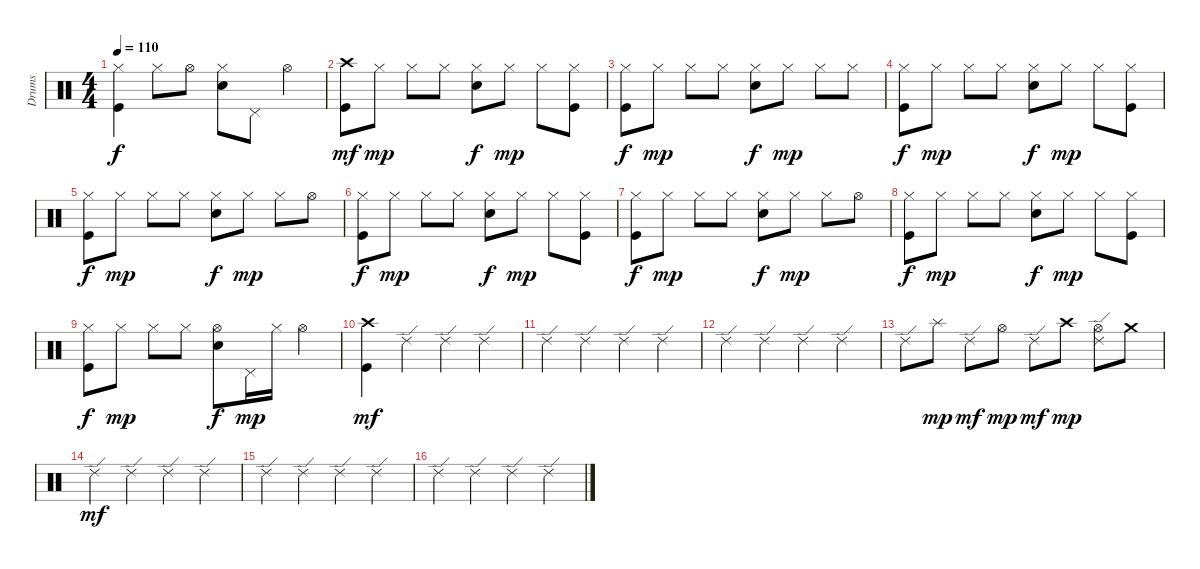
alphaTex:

\track ("Drums" "Drums") {instrument percussion}
\staff {score}
\articulation defaults
\ts (4 4)
\tempo 110
\clef neutral
\ks c
("Hi-Hat (closed)" "Kick (hit)").4{dy f} "Hi-Hat (closed)".8 "Hi-Hat (open)".8 ("Hi-Hat (closed)" "Electric Snare (hit)").8 "Pedal Hi-Hat (hit)".8 "Hi-Hat (open)".4 |
("Crash high (hit)" "Kick (hit)").8{dy mf} "Hi-Hat (closed)".8{dy mp} "Hi-Hat (closed)".8 "Hi-Hat (closed)".8 ("Hi-Hat (closed)" "Electric Snare (hit)").8{dy f} "Hi-Hat (closed)".8{dy mp} "Hi-Hat (closed)".8 ("Hi-Hat (closed)" "Kick (hit)").8 |
("Hi-Hat (closed)" "Kick (hit)").8{dy f} "Hi-Hat (closed)".8{dy mp} "Hi-Hat (closed)".8 "Hi-Hat (closed)".8 ("Hi-Hat (closed)" "Electric Snare (hit)").8{dy f} "Hi-Hat (closed)".8{dy mp} "Hi-Hat (closed)".8 "Hi-Hat (closed)".8 |
("Hi-Hat (closed)" "Kick (hit)").8{dy f} "Hi-Hat (closed)".8{dy mp} "Hi-Hat (closed)".8 "Hi-Hat (closed)".8 ("Hi-Hat (closed)" "Electric Snare (hit)").8{dy f} "Hi-Hat (closed)".8{dy mp} "Hi-Hat (closed)".8 ("Hi-Hat (closed)" "Kick (hit)").8 |
("Hi-Hat (closed)" "Kick (hit)").8{dy f} "Hi-Hat (closed)".8{dy mp} "Hi-Hat (closed)".8 "Hi-Hat (closed)".8 ("Hi-Hat (closed)" "Electric Snare (hit)").8{dy f} "Hi-Hat (closed)".8{dy mp} "Hi-Hat (closed)".8 "Hi-Hat (open)".8 |
("Hi-Hat (closed)" "Kick (hit)").8{dy f} "Hi-Hat (closed)".8{dy mp} "Hi-Hat (closed)".8 "Hi-Hat (closed)".8 ("Hi-Hat (closed)" "Electric Snare (hit)").8{dy f} "Hi-Hat (closed)".8{dy mp} "Hi-Hat (closed)".8 ("Hi-Hat (closed)" "Kick (hit)").8 |
("Hi-Hat (closed)" "Kick (hit)").8{dy f} "Hi-Hat (closed)".8{dy mp} "Hi-Hat (closed)".8 "Hi-Hat (closed)".8 ("Hi-Hat (closed)" "Electric Snare (hit)").8{dy f} "Hi-Hat (closed)".8{dy mp} "Hi-Hat (closed)".8 "Hi-Hat (open)".8 |
("Hi-Hat (closed)" "Kick (hit)").8{dy f} "Hi-Hat (closed)".8{dy mp} "Hi-Hat (closed)".8 "Hi-Hat (closed)".8 ("Hi-Hat (closed)" "Electric Snare (hit)").8{dy f} "Hi-Hat (closed)".8{dy mp} "Hi-Hat (closed)".8 ("Hi-Hat (closed)" "Kick (hit)").8 |
("Hi-Hat (closed)" "Kick (hit)").8{dy f} "Hi-Hat (closed)".8{dy mp} "Hi-Hat (closed)".8 "Hi-Hat (closed)".8 ("Hi-Hat (open)" "Electric Snare (hit)").8{dy f} "Pedal Hi-Hat (hit)".16{dy mp} "Hi-Hat (closed)".16 "Hi-Hat (open)".4 |
\section ("" "")
("Crash high (hit)" "Kick (hit)").4{dy mf} "Ride (edge) 2".4 "Ride (edge) 2".4 "Ride (edge) 2".4 |
"Ride (edge) 2".4 "Ride (edge) 2".4 "Ride (edge) 2".4 "Ride (edge) 2".4 |
"Ride (edge) 2".4 "Ride (edge) 2".4 "Ride (edge) 2".4 "Ride (edge) 2".4 |
"Ride (edge) 2".8 "Splash (hit)".8{dy mp} "Ride (edge) 2".8{dy mf} "Hi-Hat (open)".8{dy mp} "Ride (edge) 2".8{dy mf} "Crash high (hit)".8{dy mp} ("Ride (edge) 2" "Hi-Hat (open)").8 "Crash medium (hit)".8 |
"Ride (edge) 2".4{dy mf} "Ride (edge) 2".4 "Ride (edge) 2".4 "Ride (edge) 2".4 |
"Ride (edge) 2".4 "Ride (edge) 2".4 "Ride (edge) 2".4 "Ride (edge) 2".4 |
"Ride (edge) 2".4 "Ride (edge) 2".4 "Ride (edge) 2".4 "Ride (edge) 2".4
